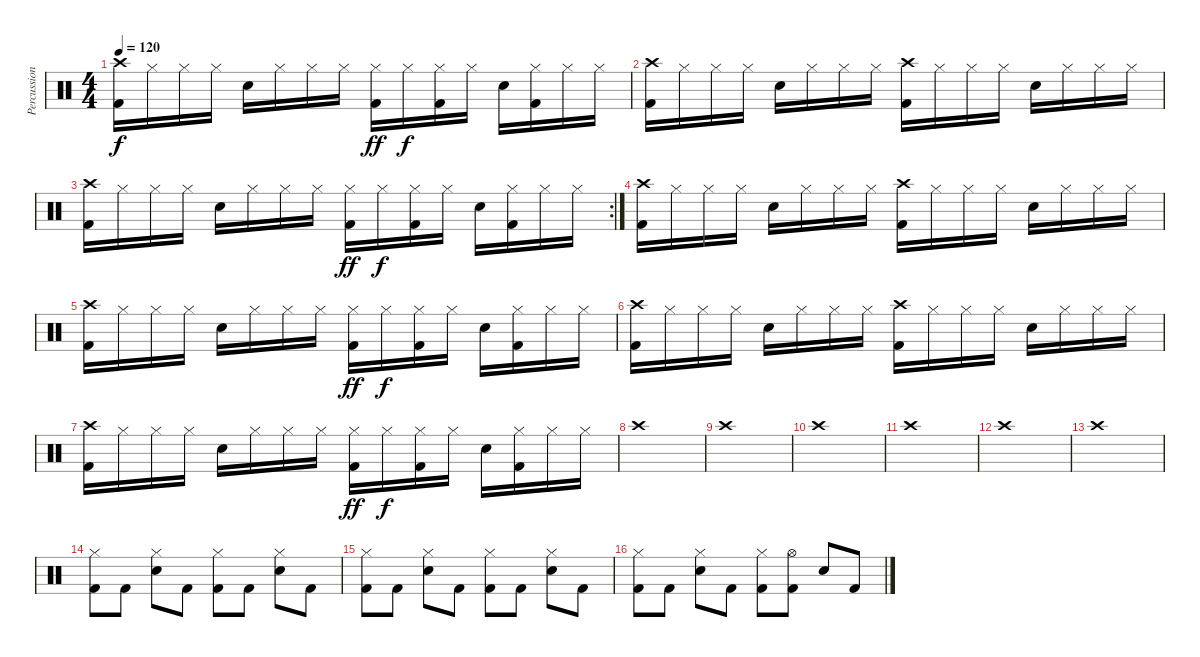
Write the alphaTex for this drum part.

\track ("Percussions" "Percussion") {instrument percussion}
\staff {score}
\articulation defaults
\ts (4 4)
\tempo 120
\clef neutral
\ks c
("Crash high (hit)" "Kick (hit) 2").16{dy f} "Hi-Hat (closed)".16 "Hi-Hat (closed)".16 "Hi-Hat (closed)".16 "Snare (hit) 2".16 "Hi-Hat (closed)".16 "Hi-Hat (closed)".16 "Hi-Hat (closed)".16 ("Hi-Hat (closed)" "Kick (hit) 2").16{dy ff} "Hi-Hat (closed)".16{dy f} ("Hi-Hat (closed)" "Kick (hit) 2").16 "Hi-Hat (closed)".16 "Snare (hit) 2".16 ("Hi-Hat (closed)" "Kick (hit) 2").16 "Hi-Hat (closed)".16 "Hi-Hat (closed)".16 |
("Crash high (hit)" "Kick (hit) 2").16 "Hi-Hat (closed)".16 "Hi-Hat (closed)".16 "Hi-Hat (closed)".16 "Snare (hit) 2".16 "Hi-Hat (closed)".16 "Hi-Hat (closed)".16 "Hi-Hat (closed)".16 ("Crash high (hit)" "Kick (hit) 2").16 "Hi-Hat (closed)".16 "Hi-Hat (closed)".16 "Hi-Hat (closed)".16 "Snare (hit) 2".16 "Hi-Hat (closed)".16 "Hi-Hat (closed)".16 "Hi-Hat (closed)".16 |
\rc 2
("Crash high (hit)" "Kick (hit) 2").16 "Hi-Hat (closed)".16 "Hi-Hat (closed)".16 "Hi-Hat (closed)".16 "Snare (hit) 2".16 "Hi-Hat (closed)".16 "Hi-Hat (closed)".16 "Hi-Hat (closed)".16 ("Hi-Hat (closed)" "Kick (hit) 2").16{dy ff} "Hi-Hat (closed)".16{dy f} ("Hi-Hat (closed)" "Kick (hit) 2").16 "Hi-Hat (closed)".16 "Snare (hit) 2".16 ("Hi-Hat (closed)" "Kick (hit) 2").16 "Hi-Hat (closed)".16 "Hi-Hat (closed)".16 |
("Crash high (hit)" "Kick (hit) 2").16 "Hi-Hat (closed)".16 "Hi-Hat (closed)".16 "Hi-Hat (closed)".16 "Snare (hit) 2".16 "Hi-Hat (closed)".16 "Hi-Hat (closed)".16 "Hi-Hat (closed)".16 ("Crash high (hit)" "Kick (hit) 2").16 "Hi-Hat (closed)".16 "Hi-Hat (closed)".16 "Hi-Hat (closed)".16 "Snare (hit) 2".16 "Hi-Hat (closed)".16 "Hi-Hat (closed)".16 "Hi-Hat (closed)".16 |
("Crash high (hit)" "Kick (hit) 2").16 "Hi-Hat (closed)".16 "Hi-Hat (closed)".16 "Hi-Hat (closed)".16 "Snare (hit) 2".16 "Hi-Hat (closed)".16 "Hi-Hat (closed)".16 "Hi-Hat (closed)".16 ("Hi-Hat (closed)" "Kick (hit) 2").16{dy ff} "Hi-Hat (closed)".16{dy f} ("Hi-Hat (closed)" "Kick (hit) 2").16 "Hi-Hat (closed)".16 "Snare (hit) 2".16 ("Hi-Hat (closed)" "Kick (hit) 2").16 "Hi-Hat (closed)".16 "Hi-Hat (closed)".16 |
("Crash high (hit)" "Kick (hit) 2").16 "Hi-Hat (closed)".16 "Hi-Hat (closed)".16 "Hi-Hat (closed)".16 "Snare (hit) 2".16 "Hi-Hat (closed)".16 "Hi-Hat (closed)".16 "Hi-Hat (closed)".16 ("Crash high (hit)" "Kick (hit) 2").16 "Hi-Hat (closed)".16 "Hi-Hat (closed)".16 "Hi-Hat (closed)".16 "Snare (hit) 2".16 "Hi-Hat (closed)".16 "Hi-Hat (closed)".16 "Hi-Hat (closed)".16 |
("Crash high (hit)" "Kick (hit) 2").16 "Hi-Hat (closed)".16 "Hi-Hat (closed)".16 "Hi-Hat (closed)".16 "Snare (hit) 2".16 "Hi-Hat (closed)".16 "Hi-Hat (closed)".16 "Hi-Hat (closed)".16 ("Hi-Hat (closed)" "Kick (hit) 2").16{dy ff} "Hi-Hat (closed)".16{dy f} ("Hi-Hat (closed)" "Kick (hit) 2").16 "Hi-Hat (closed)".16 "Snare (hit) 2".16 ("Hi-Hat (closed)" "Kick (hit) 2").16 "Hi-Hat (closed)".16 "Hi-Hat (closed)".16 |
"Crash high (hit)".1 |
"Crash high (hit)".1 |
"Crash high (hit)".1 |
"Crash high (hit)".1 |
"Crash high (hit)".1 |
"Crash high (hit)".1 |
("Hi-Hat (closed)" "Kick (hit) 2").8 "Kick (hit) 2".8 ("Hi-Hat (closed)" "Electric Snare (hit)").8 "Kick (hit) 2".8 ("Hi-Hat (closed)" "Kick (hit) 2").8 "Kick (hit) 2".8 ("Hi-Hat (closed)" "Electric Snare (hit)").8 "Kick (hit) 2".8 |
("Hi-Hat (closed)" "Kick (hit) 2").8 "Kick (hit) 2".8 ("Hi-Hat (closed)" "Electric Snare (hit)").8 "Kick (hit) 2".8 ("Hi-Hat (closed)" "Kick (hit) 2").8 "Kick (hit) 2".8 ("Hi-Hat (closed)" "Electric Snare (hit)").8 "Kick (hit) 2".8 |
("Hi-Hat (closed)" "Kick (hit) 2").8 "Kick (hit) 2".8 ("Hi-Hat (closed)" "Electric Snare (hit)").8 "Kick (hit) 2".8 ("Hi-Hat (closed)" "Kick (hit) 2").8 ("Hi-Hat (open)" "Kick (hit) 2").8 "Electric Snare (hit)".8 "Kick (hit) 2".8
